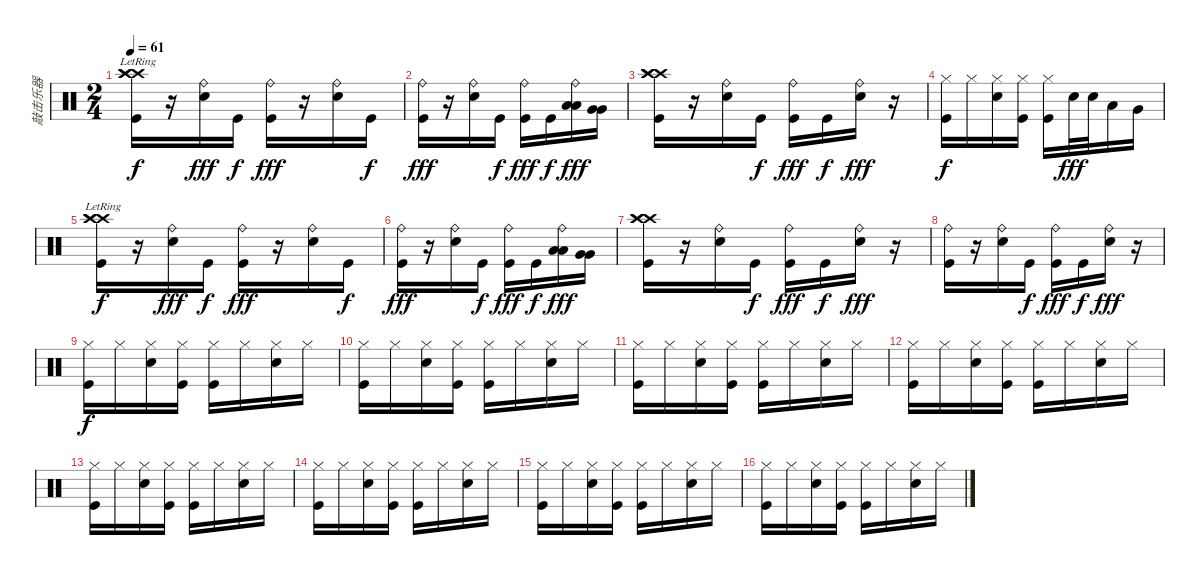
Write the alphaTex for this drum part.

\track ("敲击乐器" "敲击乐器") {instrument percussion}
\staff {score}
\articulation defaults
\ts (2 4)
\tempo 61
\clef neutral
\ks c
("Crash high (hit)"{lr} "Crash high (hit)"{lr} "Crash high (hit)"{lr} "Kick (hit)").16{dy f} r.16 ("Ride (bell)" "Snare (hit) 2").16{dy fff} "Kick (hit)".16{dy f} ("Ride (bell)" "Kick (hit)").16{dy fff} r.16 ("Ride (bell)" "Snare (hit) 2").16 "Kick (hit)".16{dy f} |
("Ride (bell)" "Kick (hit)").16{dy fff} r.16 ("Ride (bell)" "Snare (hit) 2").16 "Kick (hit)".16{dy f} ("Ride (bell)" "Kick (hit)").16{dy fff} "Kick (hit)".16{dy f} ("Ride (bell)" "Low Tom (hit)" "Low Tom (hit)").16{dy fff} ("Very Low Tom (hit)" "Very Low Tom (hit)").16 |
("Crash high (hit)" "Crash high (hit)" "Crash high (hit)" "Kick (hit)").16 r.16 ("Ride (bell)" "Snare (hit) 2").16 "Kick (hit)".16{dy f} ("Ride (bell)" "Kick (hit)").16{dy fff} "Kick (hit)".16{dy f} ("Ride (bell)" "Snare (hit) 2").16{dy fff} r.16 |
("Hi-Hat (closed)" "Kick (hit)").16{dy f} "Hi-Hat (closed)".16 ("Hi-Hat (closed)" "Snare (hit) 2").16 ("Hi-Hat (closed)" "Kick (hit)").16 ("Hi-Hat (closed)" "Kick (hit)").16 "Snare (hit) 2".32{dy fff} "Snare (hit) 2".32 "Low Tom (hit)".16 "Very Low Tom (hit)".16 |
("Crash high (hit)"{lr} "Crash high (hit)"{lr} "Crash high (hit)"{lr} "Kick (hit)").16{dy f} r.16 ("Ride (bell)" "Snare (hit) 2").16{dy fff} "Kick (hit)".16{dy f} ("Ride (bell)" "Kick (hit)").16{dy fff} r.16 ("Ride (bell)" "Snare (hit) 2").16 "Kick (hit)".16{dy f} |
("Ride (bell)" "Kick (hit)").16{dy fff} r.16 ("Ride (bell)" "Snare (hit) 2").16 "Kick (hit)".16{dy f} ("Ride (bell)" "Kick (hit)").16{dy fff} "Kick (hit)".16{dy f} ("Ride (bell)" "Low Tom (hit)" "Low Tom (hit)").16{dy fff} ("Very Low Tom (hit)" "Very Low Tom (hit)").16 |
("Crash high (hit)" "Crash high (hit)" "Crash high (hit)" "Kick (hit)").16 r.16 ("Ride (bell)" "Snare (hit) 2").16 "Kick (hit)".16{dy f} ("Ride (bell)" "Kick (hit)").16{dy fff} "Kick (hit)".16{dy f} ("Ride (bell)" "Snare (hit) 2").16{dy fff} r.16 |
("Ride (bell)" "Kick (hit)").16 r.16 ("Ride (bell)" "Snare (hit) 2").16 "Kick (hit)".16{dy f} ("Ride (bell)" "Kick (hit)").16{dy fff} "Kick (hit)".16{dy f} ("Ride (bell)" "Snare (hit) 2").16{dy fff} r.16 |
("Hi-Hat (closed)" "Kick (hit)").16{dy f} "Hi-Hat (closed)".16 ("Hi-Hat (closed)" "Snare (hit) 2").16 ("Hi-Hat (closed)" "Kick (hit)").16 ("Hi-Hat (closed)" "Kick (hit)").16 "Hi-Hat (closed)".16 ("Hi-Hat (closed)" "Snare (hit) 2").16 "Hi-Hat (closed)".16 |
("Hi-Hat (closed)" "Kick (hit)").16 "Hi-Hat (closed)".16 ("Hi-Hat (closed)" "Snare (hit) 2").16 ("Hi-Hat (closed)" "Kick (hit)").16 ("Hi-Hat (closed)" "Kick (hit)").16 "Hi-Hat (closed)".16 ("Hi-Hat (closed)" "Snare (hit) 2").16 "Hi-Hat (closed)".16 |
("Hi-Hat (closed)" "Kick (hit)").16 "Hi-Hat (closed)".16 ("Hi-Hat (closed)" "Snare (hit) 2").16 ("Hi-Hat (closed)" "Kick (hit)").16 ("Hi-Hat (closed)" "Kick (hit)").16 "Hi-Hat (closed)".16 ("Hi-Hat (closed)" "Snare (hit) 2").16 "Hi-Hat (closed)".16 |
("Hi-Hat (closed)" "Kick (hit)").16 "Hi-Hat (closed)".16 ("Hi-Hat (closed)" "Snare (hit) 2").16 ("Hi-Hat (closed)" "Kick (hit)").16 ("Hi-Hat (closed)" "Kick (hit)").16 "Hi-Hat (closed)".16 ("Hi-Hat (closed)" "Snare (hit) 2").16 "Hi-Hat (closed)".16 |
("Hi-Hat (closed)" "Kick (hit)").16 "Hi-Hat (closed)".16 ("Hi-Hat (closed)" "Snare (hit) 2").16 ("Hi-Hat (closed)" "Kick (hit)").16 ("Hi-Hat (closed)" "Kick (hit)").16 "Hi-Hat (closed)".16 ("Hi-Hat (closed)" "Snare (hit) 2").16 "Hi-Hat (closed)".16 |
("Hi-Hat (closed)" "Kick (hit)").16 "Hi-Hat (closed)".16 ("Hi-Hat (closed)" "Snare (hit) 2").16 ("Hi-Hat (closed)" "Kick (hit)").16 ("Hi-Hat (closed)" "Kick (hit)").16 "Hi-Hat (closed)".16 ("Hi-Hat (closed)" "Snare (hit) 2").16 "Hi-Hat (closed)".16 |
("Hi-Hat (closed)" "Kick (hit)").16 "Hi-Hat (closed)".16 ("Hi-Hat (closed)" "Snare (hit) 2").16 ("Hi-Hat (closed)" "Kick (hit)").16 ("Hi-Hat (closed)" "Kick (hit)").16 "Hi-Hat (closed)".16 ("Hi-Hat (closed)" "Snare (hit) 2").16 "Hi-Hat (closed)".16 |
("Hi-Hat (closed)" "Kick (hit)").16 "Hi-Hat (closed)".16 ("Hi-Hat (closed)" "Snare (hit) 2").16 ("Hi-Hat (closed)" "Kick (hit)").16 ("Hi-Hat (closed)" "Kick (hit)").16 "Hi-Hat (closed)".16 ("Hi-Hat (closed)" "Snare (hit) 2").16 "Hi-Hat (closed)".16
